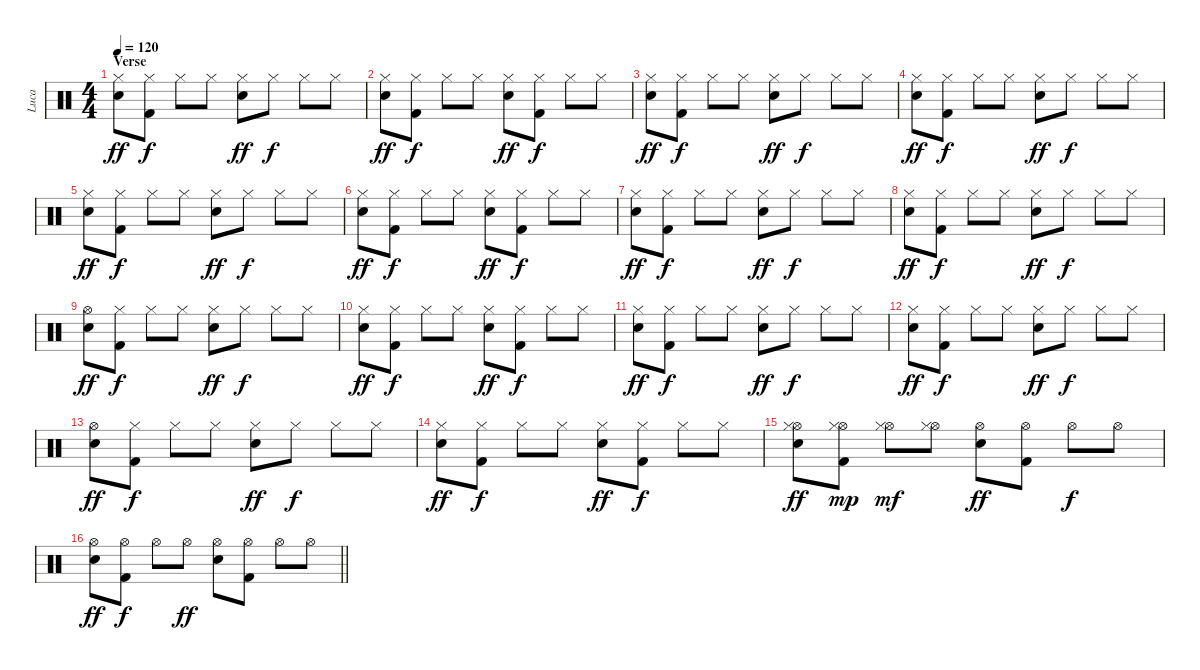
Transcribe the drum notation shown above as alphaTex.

\track ("Luca" "Luca") {instrument percussion}
\staff {score}
\articulation defaults
\ts (4 4)
\section ("" "Verse")
\tempo 120
\clef neutral
\ks c
("Hi-Hat (closed)" "Snare (hit) 2").8{dy ff} ("Hi-Hat (closed)" "Kick (hit) 2").8{dy f} "Hi-Hat (closed)".8 "Hi-Hat (closed)".8 ("Hi-Hat (closed)" "Snare (hit) 2").8{dy ff} "Hi-Hat (closed)".8{dy f} "Hi-Hat (closed)".8 "Hi-Hat (closed)".8 |
("Hi-Hat (closed)" "Snare (hit) 2").8{dy ff} ("Hi-Hat (closed)" "Kick (hit) 2").8{dy f} "Hi-Hat (closed)".8 "Hi-Hat (closed)".8 ("Hi-Hat (closed)" "Snare (hit) 2").8{dy ff} ("Hi-Hat (closed)" "Kick (hit) 2").8{dy f} "Hi-Hat (closed)".8 "Hi-Hat (closed)".8 |
("Hi-Hat (closed)" "Snare (hit) 2").8{dy ff} ("Hi-Hat (closed)" "Kick (hit) 2").8{dy f} "Hi-Hat (closed)".8 "Hi-Hat (closed)".8 ("Hi-Hat (closed)" "Snare (hit) 2").8{dy ff} "Hi-Hat (closed)".8{dy f} "Hi-Hat (closed)".8 "Hi-Hat (closed)".8 |
("Hi-Hat (closed)" "Snare (hit) 2").8{dy ff} ("Hi-Hat (closed)" "Kick (hit) 2").8{dy f} "Hi-Hat (closed)".8 "Hi-Hat (closed)".8 ("Hi-Hat (closed)" "Snare (hit) 2").8{dy ff} "Hi-Hat (closed)".8{dy f} "Hi-Hat (closed)".8 "Hi-Hat (closed)".8 |
("Hi-Hat (closed)" "Snare (hit) 2").8{dy ff} ("Hi-Hat (closed)" "Kick (hit) 2").8{dy f} "Hi-Hat (closed)".8 "Hi-Hat (closed)".8 ("Hi-Hat (closed)" "Snare (hit) 2").8{dy ff} "Hi-Hat (closed)".8{dy f} "Hi-Hat (closed)".8 "Hi-Hat (closed)".8 |
("Hi-Hat (closed)" "Snare (hit) 2").8{dy ff} ("Hi-Hat (closed)" "Kick (hit) 2").8{dy f} "Hi-Hat (closed)".8 "Hi-Hat (closed)".8 ("Hi-Hat (closed)" "Snare (hit) 2").8{dy ff} ("Hi-Hat (closed)" "Kick (hit) 2").8{dy f} "Hi-Hat (closed)".8 "Hi-Hat (closed)".8 |
("Hi-Hat (closed)" "Snare (hit) 2").8{dy ff} ("Hi-Hat (closed)" "Kick (hit) 2").8{dy f} "Hi-Hat (closed)".8 "Hi-Hat (closed)".8 ("Hi-Hat (closed)" "Snare (hit) 2").8{dy ff} "Hi-Hat (closed)".8{dy f} "Hi-Hat (closed)".8 "Hi-Hat (closed)".8 |
("Hi-Hat (closed)" "Snare (hit) 2").8{dy ff} ("Hi-Hat (closed)" "Kick (hit) 2").8{dy f} "Hi-Hat (closed)".8 "Hi-Hat (closed)".8 ("Hi-Hat (closed)" "Snare (hit) 2").8{dy ff} "Hi-Hat (closed)".8{dy f} "Hi-Hat (closed)".8 "Hi-Hat (closed)".8 |
("Hi-Hat (open)" "Snare (hit) 2").8{dy ff} ("Hi-Hat (closed)" "Kick (hit) 2").8{dy f} "Hi-Hat (closed)".8 "Hi-Hat (closed)".8 ("Hi-Hat (closed)" "Snare (hit) 2").8{dy ff} "Hi-Hat (closed)".8{dy f} "Hi-Hat (closed)".8 "Hi-Hat (closed)".8 |
("Hi-Hat (closed)" "Snare (hit) 2").8{dy ff} ("Hi-Hat (closed)" "Kick (hit) 2").8{dy f} "Hi-Hat (closed)".8 "Hi-Hat (closed)".8 ("Hi-Hat (closed)" "Snare (hit) 2").8{dy ff} ("Hi-Hat (closed)" "Kick (hit) 2").8{dy f} "Hi-Hat (closed)".8 "Hi-Hat (closed)".8 |
("Hi-Hat (closed)" "Snare (hit) 2").8{dy ff} ("Hi-Hat (closed)" "Kick (hit) 2").8{dy f} "Hi-Hat (closed)".8 "Hi-Hat (closed)".8 ("Hi-Hat (closed)" "Snare (hit) 2").8{dy ff} "Hi-Hat (closed)".8{dy f} "Hi-Hat (closed)".8 "Hi-Hat (closed)".8 |
("Hi-Hat (closed)" "Snare (hit) 2").8{dy ff} ("Hi-Hat (closed)" "Kick (hit) 2").8{dy f} "Hi-Hat (closed)".8 "Hi-Hat (closed)".8 ("Hi-Hat (closed)" "Snare (hit) 2").8{dy ff} "Hi-Hat (closed)".8{dy f} "Hi-Hat (closed)".8 "Hi-Hat (closed)".8 |
("Hi-Hat (open)" "Snare (hit) 2").8{dy ff} ("Hi-Hat (closed)" "Kick (hit) 2").8{dy f} "Hi-Hat (closed)".8 "Hi-Hat (closed)".8 ("Hi-Hat (closed)" "Snare (hit) 2").8{dy ff} "Hi-Hat (closed)".8{dy f} "Hi-Hat (closed)".8 "Hi-Hat (closed)".8 |
("Hi-Hat (closed)" "Snare (hit) 2").8{dy ff} ("Hi-Hat (closed)" "Kick (hit) 2").8{dy f} "Hi-Hat (closed)".8 "Hi-Hat (closed)".8 ("Hi-Hat (closed)" "Snare (hit) 2").8{dy ff} ("Hi-Hat (closed)" "Kick (hit) 2").8{dy f} "Hi-Hat (closed)".8 "Hi-Hat (closed)".8 |
("Hi-Hat (open)" "Hi-Hat (closed)" "Snare (hit) 2").8{dy ff} ("Hi-Hat (open)" "Hi-Hat (closed)" "Kick (hit) 2").8{dy mp} ("Hi-Hat (open)" "Hi-Hat (closed)").8{dy mf} ("Hi-Hat (open)" "Hi-Hat (closed)").8 ("Hi-Hat (open)" "Snare (hit) 2").8{dy ff} ("Hi-Hat (open)" "Kick (hit) 2").8 "Hi-Hat (open)".8{dy f} "Hi-Hat (open)".8 |
\barLineRight lightlight
("Hi-Hat (open)" "Snare (hit) 2").8{dy ff} ("Hi-Hat (open)" "Kick (hit) 2").8{dy f} "Hi-Hat (open)".8 "Hi-Hat (open)".8{dy ff} ("Hi-Hat (open)" "Snare (hit) 2").8 ("Hi-Hat (open)" "Kick (hit) 2").8 "Hi-Hat (open)".8 "Hi-Hat (open)".8
